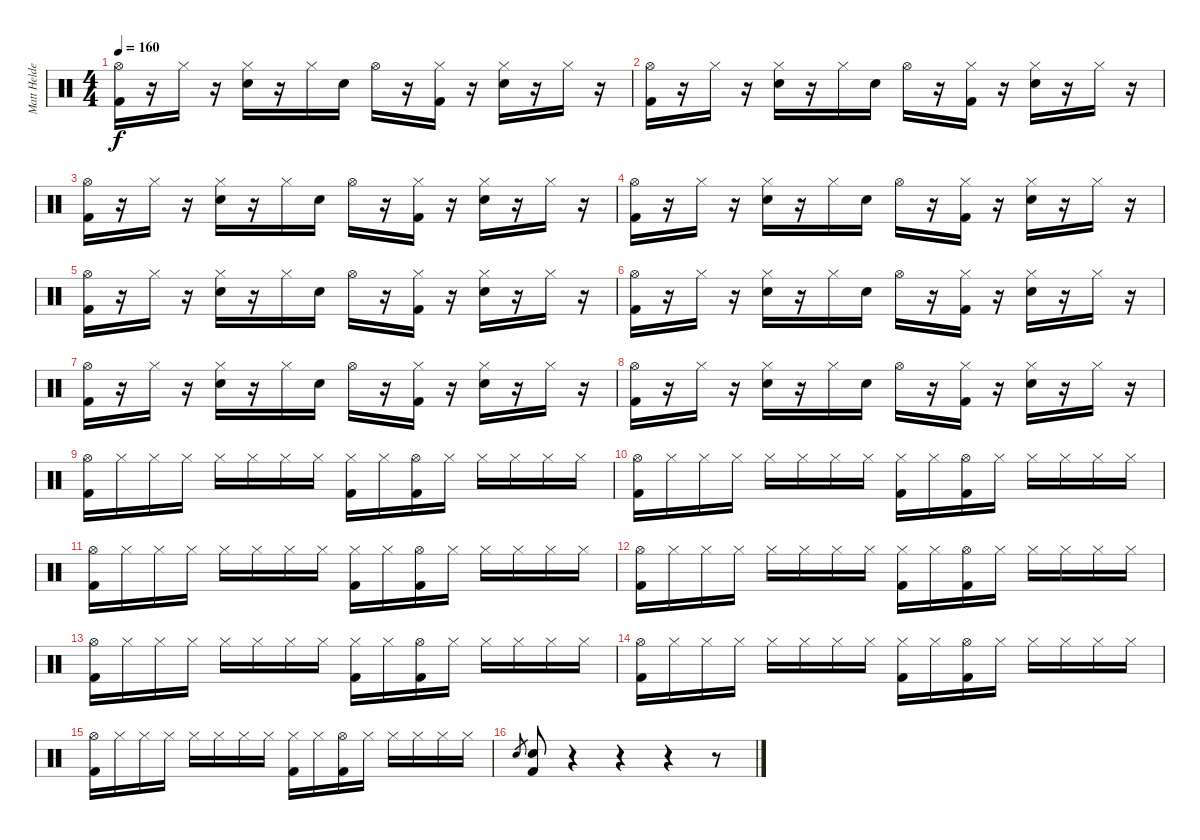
\track ("Matt Helders" "Matt Helde") {instrument percussion}
\staff {score}
\articulation defaults
\ts (4 4)
\tempo 160
\clef neutral
\ks c
("Hi-Hat (open)" "Kick (hit) 2").16{dy f} r.16 "Hi-Hat (closed)".16 r.16 ("Hi-Hat (closed)" "Snare (hit) 2").16 r.16 "Hi-Hat (closed)".16 "Snare (hit) 2".16 "Hi-Hat (open)".16 r.16 ("Hi-Hat (closed)" "Kick (hit) 2").16 r.16 ("Hi-Hat (closed)" "Snare (hit) 2").16 r.16 "Hi-Hat (closed)".16 r.16 |
("Hi-Hat (open)" "Kick (hit) 2").16 r.16 "Hi-Hat (closed)".16 r.16 ("Hi-Hat (closed)" "Snare (hit) 2").16 r.16 "Hi-Hat (closed)".16 "Snare (hit) 2".16 "Hi-Hat (open)".16 r.16 ("Hi-Hat (closed)" "Kick (hit) 2").16 r.16 ("Hi-Hat (closed)" "Snare (hit) 2").16 r.16 "Hi-Hat (closed)".16 r.16 |
("Hi-Hat (open)" "Kick (hit) 2").16 r.16 "Hi-Hat (closed)".16 r.16 ("Hi-Hat (closed)" "Snare (hit) 2").16 r.16 "Hi-Hat (closed)".16 "Snare (hit) 2".16 "Hi-Hat (open)".16 r.16 ("Hi-Hat (closed)" "Kick (hit) 2").16 r.16 ("Hi-Hat (closed)" "Snare (hit) 2").16 r.16 "Hi-Hat (closed)".16 r.16 |
("Hi-Hat (open)" "Kick (hit) 2").16 r.16 "Hi-Hat (closed)".16 r.16 ("Hi-Hat (closed)" "Snare (hit) 2").16 r.16 "Hi-Hat (closed)".16 "Snare (hit) 2".16 "Hi-Hat (open)".16 r.16 ("Hi-Hat (closed)" "Kick (hit) 2").16 r.16 ("Hi-Hat (closed)" "Snare (hit) 2").16 r.16 "Hi-Hat (closed)".16 r.16 |
("Hi-Hat (open)" "Kick (hit) 2").16 r.16 "Hi-Hat (closed)".16 r.16 ("Hi-Hat (closed)" "Snare (hit) 2").16 r.16 "Hi-Hat (closed)".16 "Snare (hit) 2".16 "Hi-Hat (open)".16 r.16 ("Hi-Hat (closed)" "Kick (hit) 2").16 r.16 ("Hi-Hat (closed)" "Snare (hit) 2").16 r.16 "Hi-Hat (closed)".16 r.16 |
("Hi-Hat (open)" "Kick (hit) 2").16 r.16 "Hi-Hat (closed)".16 r.16 ("Hi-Hat (closed)" "Snare (hit) 2").16 r.16 "Hi-Hat (closed)".16 "Snare (hit) 2".16 "Hi-Hat (open)".16 r.16 ("Hi-Hat (closed)" "Kick (hit) 2").16 r.16 ("Hi-Hat (closed)" "Snare (hit) 2").16 r.16 "Hi-Hat (closed)".16 r.16 |
("Hi-Hat (open)" "Kick (hit) 2").16 r.16 "Hi-Hat (closed)".16 r.16 ("Hi-Hat (closed)" "Snare (hit) 2").16 r.16 "Hi-Hat (closed)".16 "Snare (hit) 2".16 "Hi-Hat (open)".16 r.16 ("Hi-Hat (closed)" "Kick (hit) 2").16 r.16 ("Hi-Hat (closed)" "Snare (hit) 2").16 r.16 "Hi-Hat (closed)".16 r.16 |
("Hi-Hat (open)" "Kick (hit) 2").16 r.16 "Hi-Hat (closed)".16 r.16 ("Hi-Hat (closed)" "Snare (hit) 2").16 r.16 "Hi-Hat (closed)".16 "Snare (hit) 2".16 "Hi-Hat (open)".16 r.16 ("Hi-Hat (closed)" "Kick (hit) 2").16 r.16 ("Hi-Hat (closed)" "Snare (hit) 2").16 r.16 "Hi-Hat (closed)".16 r.16 |
("Hi-Hat (open)" "Kick (hit) 2").16 "Hi-Hat (closed)".16 "Hi-Hat (closed)".16 "Hi-Hat (closed)".16 "Hi-Hat (closed)".16 "Hi-Hat (closed)".16 "Hi-Hat (closed)".16 "Hi-Hat (closed)".16 ("Hi-Hat (closed)" "Kick (hit) 2").16 "Hi-Hat (closed)".16 ("Hi-Hat (open)" "Kick (hit) 2").16 "Hi-Hat (closed)".16 "Hi-Hat (closed)".16 "Hi-Hat (closed)".16 "Hi-Hat (closed)".16 "Hi-Hat (closed)".16 |
("Hi-Hat (open)" "Kick (hit) 2").16 "Hi-Hat (closed)".16 "Hi-Hat (closed)".16 "Hi-Hat (closed)".16 "Hi-Hat (closed)".16 "Hi-Hat (closed)".16 "Hi-Hat (closed)".16 "Hi-Hat (closed)".16 ("Hi-Hat (closed)" "Kick (hit) 2").16 "Hi-Hat (closed)".16 ("Hi-Hat (open)" "Kick (hit) 2").16 "Hi-Hat (closed)".16 "Hi-Hat (closed)".16 "Hi-Hat (closed)".16 "Hi-Hat (closed)".16 "Hi-Hat (closed)".16 |
("Hi-Hat (open)" "Kick (hit) 2").16 "Hi-Hat (closed)".16 "Hi-Hat (closed)".16 "Hi-Hat (closed)".16 "Hi-Hat (closed)".16 "Hi-Hat (closed)".16 "Hi-Hat (closed)".16 "Hi-Hat (closed)".16 ("Hi-Hat (closed)" "Kick (hit) 2").16 "Hi-Hat (closed)".16 ("Hi-Hat (open)" "Kick (hit) 2").16 "Hi-Hat (closed)".16 "Hi-Hat (closed)".16 "Hi-Hat (closed)".16 "Hi-Hat (closed)".16 "Hi-Hat (closed)".16 |
("Hi-Hat (open)" "Kick (hit) 2").16 "Hi-Hat (closed)".16 "Hi-Hat (closed)".16 "Hi-Hat (closed)".16 "Hi-Hat (closed)".16 "Hi-Hat (closed)".16 "Hi-Hat (closed)".16 "Hi-Hat (closed)".16 ("Hi-Hat (closed)" "Kick (hit) 2").16 "Hi-Hat (closed)".16 ("Hi-Hat (open)" "Kick (hit) 2").16 "Hi-Hat (closed)".16 "Hi-Hat (closed)".16 "Hi-Hat (closed)".16 "Hi-Hat (closed)".16 "Hi-Hat (closed)".16 |
("Hi-Hat (open)" "Kick (hit) 2").16 "Hi-Hat (closed)".16 "Hi-Hat (closed)".16 "Hi-Hat (closed)".16 "Hi-Hat (closed)".16 "Hi-Hat (closed)".16 "Hi-Hat (closed)".16 "Hi-Hat (closed)".16 ("Hi-Hat (closed)" "Kick (hit) 2").16 "Hi-Hat (closed)".16 ("Hi-Hat (open)" "Kick (hit) 2").16 "Hi-Hat (closed)".16 "Hi-Hat (closed)".16 "Hi-Hat (closed)".16 "Hi-Hat (closed)".16 "Hi-Hat (closed)".16 |
("Hi-Hat (open)" "Kick (hit) 2").16 "Hi-Hat (closed)".16 "Hi-Hat (closed)".16 "Hi-Hat (closed)".16 "Hi-Hat (closed)".16 "Hi-Hat (closed)".16 "Hi-Hat (closed)".16 "Hi-Hat (closed)".16 ("Hi-Hat (closed)" "Kick (hit) 2").16 "Hi-Hat (closed)".16 ("Hi-Hat (open)" "Kick (hit) 2").16 "Hi-Hat (closed)".16 "Hi-Hat (closed)".16 "Hi-Hat (closed)".16 "Hi-Hat (closed)".16 "Hi-Hat (closed)".16 |
("Hi-Hat (open)" "Kick (hit) 2").16 "Hi-Hat (closed)".16 "Hi-Hat (closed)".16 "Hi-Hat (closed)".16 "Hi-Hat (closed)".16 "Hi-Hat (closed)".16 "Hi-Hat (closed)".16 "Hi-Hat (closed)".16 ("Hi-Hat (closed)" "Kick (hit) 2").16 "Hi-Hat (closed)".16 ("Hi-Hat (open)" "Kick (hit) 2").16 "Hi-Hat (closed)".16 "Hi-Hat (closed)".16 "Hi-Hat (closed)".16 "Hi-Hat (closed)".16 "Hi-Hat (closed)".16 |
"Snare (hit) 2".8{gr} ("Snare (hit) 2" "Kick (hit) 2").8 r.4 r.4 r.4 r.8
